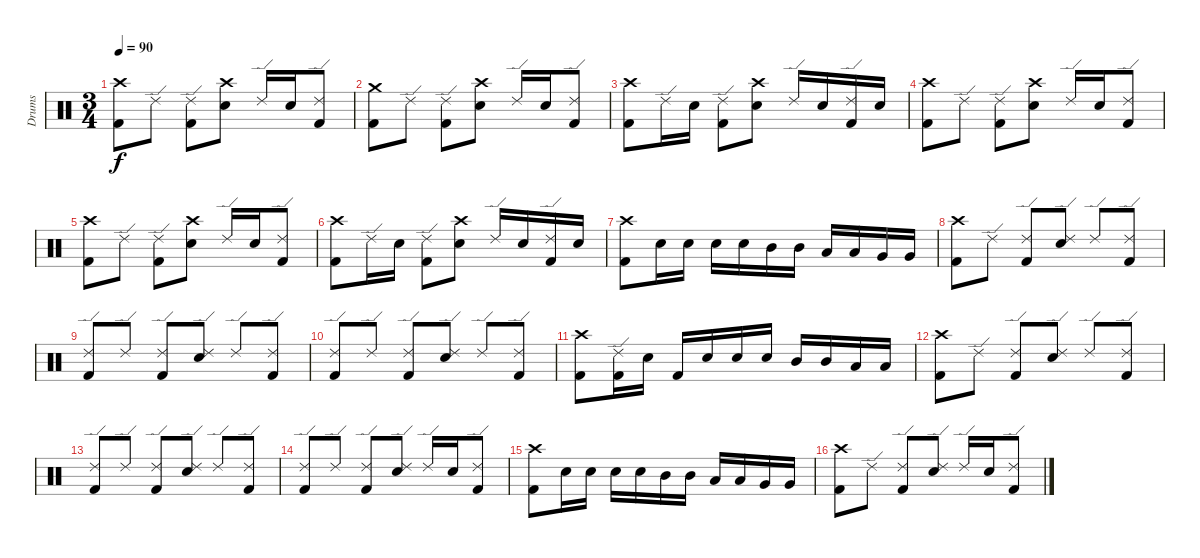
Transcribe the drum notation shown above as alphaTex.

\track ("Drums" "Drums") {instrument percussion}
\staff {score}
\articulation defaults
\ts (3 4)
\tempo 90
\clef neutral
\ks c
("Crash high (hit)" "Kick (hit) 2").8{dy f} "Ride (edge) 2".8 ("Ride (edge) 2" "Kick (hit) 2").8 ("Crash high (hit)" "Electric Snare (hit)").8 "Ride (edge) 2".16 "Electric Snare (hit)".16 ("Ride (edge) 2" "Kick (hit) 2").8 |
("Crash medium (hit)" "Kick (hit) 2").8 "Ride (edge) 2".8 ("Ride (edge) 2" "Kick (hit) 2").8 ("Crash high (hit)" "Electric Snare (hit)").8 "Ride (edge) 2".16 "Electric Snare (hit)".16 ("Ride (edge) 2" "Kick (hit) 2").8 |
("Crash high (hit)" "Kick (hit) 2").8 "Ride (edge) 2".16 "Electric Snare (hit)".16 ("Ride (edge) 2" "Kick (hit) 2").8 ("Crash high (hit)" "Electric Snare (hit)").8 "Ride (edge) 2".16 "Electric Snare (hit)".16 ("Ride (edge) 2" "Kick (hit) 2").16 "Electric Snare (hit)".16 |
("Crash high (hit)" "Kick (hit) 2").8 "Ride (edge) 2".8 ("Ride (edge) 2" "Kick (hit) 2").8 ("Crash high (hit)" "Electric Snare (hit)").8 "Ride (edge) 2".16 "Electric Snare (hit)".16 ("Ride (edge) 2" "Kick (hit) 2").8 |
("Crash high (hit)" "Kick (hit) 2").8 "Ride (edge) 2".8 ("Ride (edge) 2" "Kick (hit) 2").8 ("Crash high (hit)" "Electric Snare (hit)").8 "Ride (edge) 2".16 "Electric Snare (hit)".16 ("Ride (edge) 2" "Kick (hit) 2").8 |
("Crash high (hit)" "Kick (hit) 2").8 "Ride (edge) 2".16 "Electric Snare (hit)".16 ("Ride (edge) 2" "Kick (hit) 2").8 ("Crash high (hit)" "Electric Snare (hit)").8 "Ride (edge) 2".16 "Electric Snare (hit)".16 ("Ride (edge) 2" "Kick (hit) 2").16 "Electric Snare (hit)".16 |
("Crash high (hit)" "Kick (hit) 2").8 "Electric Snare (hit)".16 "Electric Snare (hit)".16 "Electric Snare (hit)".16 "Electric Snare (hit)".16 "Mid Tom (hit)".16 "Mid Tom (hit)".16 "Low Tom (hit)".16 "Low Tom (hit)".16 "Very Low Tom (hit)".16 "Very Low Tom (hit)".16 |
("Crash high (hit)" "Kick (hit) 2").8 "Ride (edge) 2".8 ("Ride (edge) 2" "Kick (hit) 2").8 ("Ride (edge) 2" "Electric Snare (hit)").8 "Ride (edge) 2".8 ("Ride (edge) 2" "Kick (hit) 2").8 |
("Ride (edge) 2" "Kick (hit) 2").8 "Ride (edge) 2".8 ("Ride (edge) 2" "Kick (hit) 2").8 ("Ride (edge) 2" "Electric Snare (hit)").8 "Ride (edge) 2".8 ("Ride (edge) 2" "Kick (hit) 2").8 |
("Ride (edge) 2" "Kick (hit) 2").8 "Ride (edge) 2".8 ("Ride (edge) 2" "Kick (hit) 2").8 ("Ride (edge) 2" "Electric Snare (hit)").8 "Ride (edge) 2".8 ("Ride (edge) 2" "Kick (hit) 2").8 |
("Crash high (hit)" "Kick (hit) 2").8 ("Ride (edge) 2" "Kick (hit) 2").16 "Electric Snare (hit)".16 "Kick (hit) 2".16 "Electric Snare (hit)".16 "Electric Snare (hit)".16 "Electric Snare (hit)".16 "Mid Tom (hit)".16 "Mid Tom (hit)".16 "Low Tom (hit)".16 "Low Tom (hit)".16 |
("Crash high (hit)" "Kick (hit) 2").8 "Ride (edge) 2".8 ("Ride (edge) 2" "Kick (hit) 2").8 ("Ride (edge) 2" "Electric Snare (hit)").8 "Ride (edge) 2".8 ("Ride (edge) 2" "Kick (hit) 2").8 |
("Ride (edge) 2" "Kick (hit) 2").8 "Ride (edge) 2".8 ("Ride (edge) 2" "Kick (hit) 2").8 ("Ride (edge) 2" "Electric Snare (hit)").8 "Ride (edge) 2".8 ("Ride (edge) 2" "Kick (hit) 2").8 |
("Ride (edge) 2" "Kick (hit) 2").8 "Ride (edge) 2".8 ("Ride (edge) 2" "Kick (hit) 2").8 ("Ride (edge) 2" "Electric Snare (hit)").8 "Ride (edge) 2".16 "Electric Snare (hit)".16 ("Ride (edge) 2" "Kick (hit) 2").8 |
("Crash high (hit)" "Kick (hit) 2").8 "Electric Snare (hit)".16 "Electric Snare (hit)".16 "Electric Snare (hit)".16 "Electric Snare (hit)".16 "Mid Tom (hit)".16 "Mid Tom (hit)".16 "Low Tom (hit)".16 "Low Tom (hit)".16 "Very Low Tom (hit)".16 "Very Low Tom (hit)".16 |
("Crash high (hit)" "Kick (hit) 2").8 "Ride (edge) 2".8 ("Ride (edge) 2" "Kick (hit) 2").8 ("Ride (edge) 2" "Electric Snare (hit)").8 "Ride (edge) 2".16 "Electric Snare (hit)".16 ("Ride (edge) 2" "Kick (hit) 2").8
